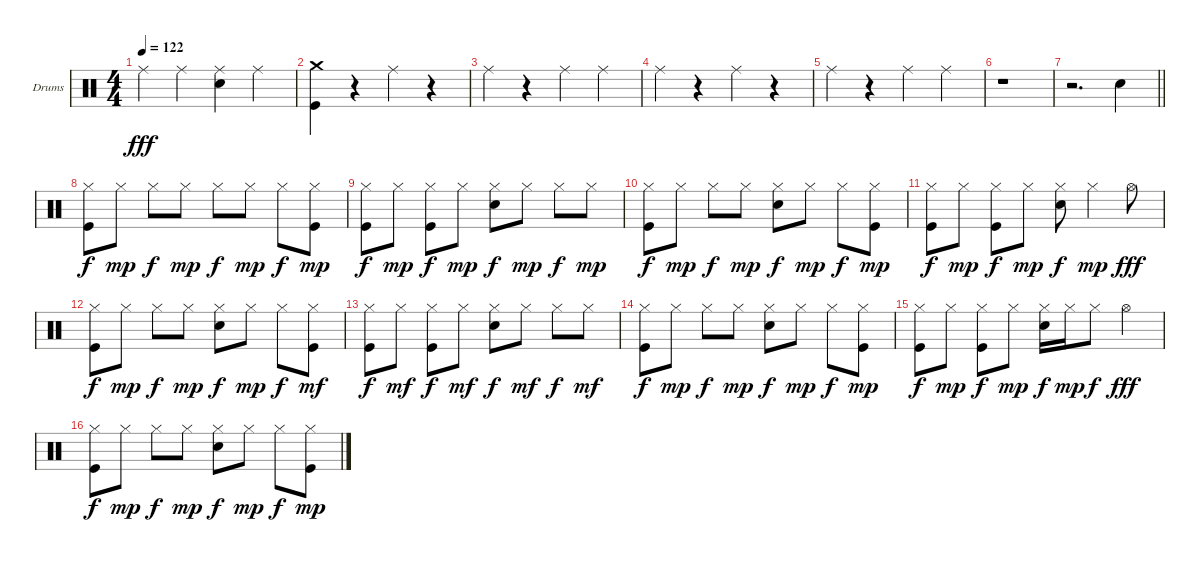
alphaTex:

\bracketExtendMode groupsimilarinstruments
\firstSystemTrackNameOrientation horizontal
\otherSystemsTrackNameOrientation horizontal
\track ("Drumkit" "Drums") {instrument percussion}
\staff {score}
\articulation defaults
\ts (4 4)
\tempo 122
\clef neutral
\ks c "Ride (middle)".4{dy fff} "Ride (middle)".4
("Ride (middle)" "Snare (hit) 2").4 "Ride (middle)".4 |
("Crash medium (hit)" "Kick (hit)").4 r.4 "Ride (middle)".4 r.4 |
"Ride (middle)".4 r.4 "Ride (middle)".4 "Ride (middle)".4 |
"Ride (middle)".4 r.4 "Ride (middle)".4 r.4 |
"Ride (middle)".4 r.4 "Ride (middle)".4 "Ride (middle)".4 |
r.1 |
\barLineRight lightlight
r.2{d} "Snare (hit) 2".4 |
("Hi-Hat (closed)" "Kick (hit)").8{dy f} "Hi-Hat (closed)".8{dy mp} "Hi-Hat (closed)".8{dy f} "Hi-Hat (closed)".8{dy mp} "Hi-Hat (closed)".8{dy f} "Hi-Hat (closed)".8{dy mp} "Hi-Hat (closed)".8{dy f} ("Hi-Hat (closed)" "Kick (hit)").8{dy mp} |
("Hi-Hat (closed)" "Kick (hit)").8{dy f} "Hi-Hat (closed)".8{dy mp} ("Hi-Hat (closed)" "Kick (hit)").8{dy f} "Hi-Hat (closed)".8{dy mp} ("Hi-Hat (closed)" "Snare (hit) 2").8{dy f} "Hi-Hat (closed)".8{dy mp} "Hi-Hat (closed)".8{dy f} "Hi-Hat (closed)".8{dy mp} |
("Hi-Hat (closed)" "Kick (hit)").8{dy f} "Hi-Hat (closed)".8{dy mp} "Hi-Hat (closed)".8{dy f} "Hi-Hat (closed)".8{dy mp} ("Hi-Hat (closed)" "Snare (hit) 2").8{dy f} "Hi-Hat (closed)".8{dy mp} "Hi-Hat (closed)".8{dy f} ("Hi-Hat (closed)" "Kick (hit)").8{dy mp} |
("Hi-Hat (closed)" "Kick (hit)").8{dy f} "Hi-Hat (closed)".8{dy mp} ("Hi-Hat (closed)" "Kick (hit)").8{dy f} "Hi-Hat (closed)".8{dy mp} ("Hi-Hat (closed)" "Snare (hit) 2").8{dy f} "Hi-Hat (closed)".4{dy mp} "Hi-Hat (open)".8{dy fff} |
("Hi-Hat (closed)" "Kick (hit)").8{dy f} "Hi-Hat (closed)".8{dy mp} "Hi-Hat (closed)".8{dy f} "Hi-Hat (closed)".8{dy mp} ("Hi-Hat (closed)" "Snare (hit) 2").8{dy f} "Hi-Hat (closed)".8{dy mp} "Hi-Hat (closed)".8{dy f} ("Hi-Hat (closed)" "Kick (hit)").8{dy mf} |
("Hi-Hat (closed)" "Kick (hit)").8{dy f} "Hi-Hat (closed)".8{dy mf} ("Hi-Hat (closed)" "Kick (hit)").8{dy f} "Hi-Hat (closed)".8{dy mf} ("Hi-Hat (closed)" "Snare (hit) 2").8{dy f} "Hi-Hat (closed)".8{dy mf} "Hi-Hat (closed)".8{dy f} "Hi-Hat (closed)".8{dy mf} |
("Hi-Hat (closed)" "Kick (hit)").8{dy f} "Hi-Hat (closed)".8{dy mp} "Hi-Hat (closed)".8{dy f} "Hi-Hat (closed)".8{dy mp} ("Hi-Hat (closed)" "Snare (hit) 2").8{dy f} "Hi-Hat (closed)".8{dy mp} "Hi-Hat (closed)".8{dy f} ("Hi-Hat (closed)" "Kick (hit)").8{dy mp} |
("Hi-Hat (closed)" "Kick (hit)").8{dy f} "Hi-Hat (closed)".8{dy mp} ("Hi-Hat (closed)" "Kick (hit)").8{dy f} "Hi-Hat (closed)".8{dy mp} ("Hi-Hat (closed)" "Snare (hit) 2").16{dy f} "Hi-Hat (closed)".16{dy mp} "Hi-Hat (closed)".8{dy f} "Hi-Hat (open)".4{dy fff} |
("Hi-Hat (closed)" "Kick (hit)").8{dy f} "Hi-Hat (closed)".8{dy mp} "Hi-Hat (closed)".8{dy f} "Hi-Hat (closed)".8{dy mp} ("Hi-Hat (closed)" "Snare (hit) 2").8{dy f} "Hi-Hat (closed)".8{dy mp} "Hi-Hat (closed)".8{dy f} ("Hi-Hat (closed)" "Kick (hit)").8{dy mp}
